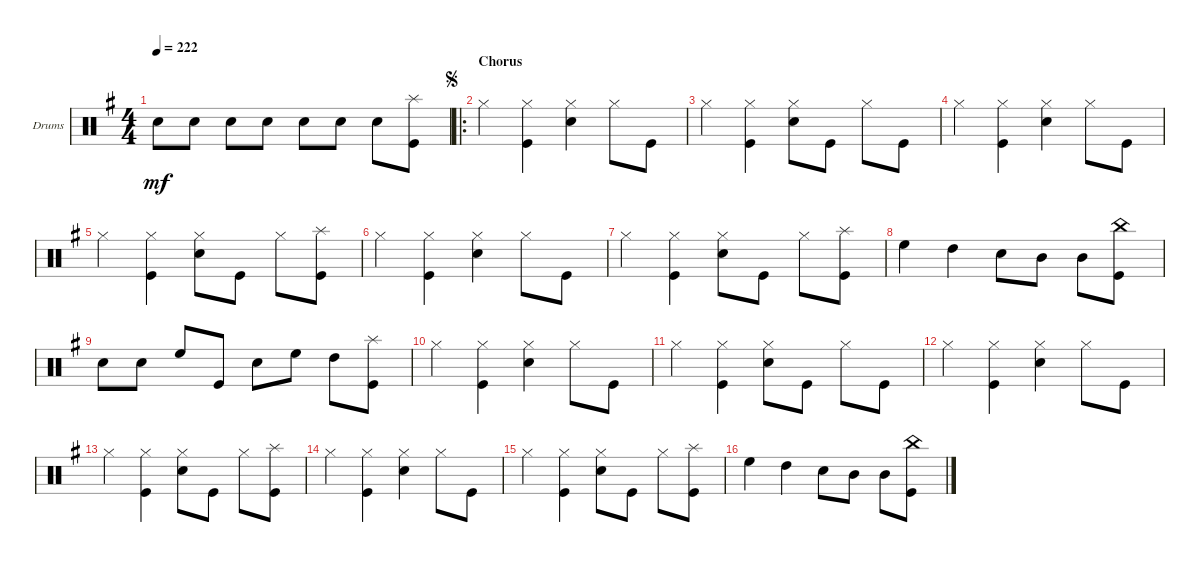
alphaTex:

\bracketExtendMode groupsimilarinstruments
\firstSystemTrackNameOrientation horizontal
\otherSystemsTrackNameOrientation horizontal
\track ("Drumkit" "Drums") {instrument percussion}
\staff {score}
\articulation defaults
\ts (4 4)
\beaming (8 2 2 2 2)
\tempo 222
\clef neutral
\ks eminor "Snare (hit) 2".8{dy mf} "Snare (hit) 2".8 "Snare (hit) 2".8 "Snare (hit) 2".8 "Snare (hit) 2".8 "Snare (hit) 2".8 "Snare (hit) 2".8
("Kick (hit)" "Splash (hit)").8 |
\ro
\section ("" "Chorus")
\jump segno "Hi-Hat (closed)".4
("Kick (hit)" "Hi-Hat (closed)").4 ("Snare (hit) 2" "Hi-Hat (closed)").4 "Hi-Hat (closed)".8 "Kick (hit)".8 |
"Hi-Hat (closed)".4 ("Hi-Hat (closed)" "Kick (hit)").4 ("Snare (hit) 2" "Hi-Hat (closed)").8 "Kick (hit)".8 "Hi-Hat (closed)".8 "Kick (hit)".8 |
"Hi-Hat (closed)".4 ("Kick (hit)" "Hi-Hat (closed)").4 ("Snare (hit) 2" "Hi-Hat (closed)").4 "Hi-Hat (closed)".8 "Kick (hit)".8 |
"Hi-Hat (closed)".4 ("Hi-Hat (closed)" "Kick (hit)").4 ("Snare (hit) 2" "Hi-Hat (closed)").8 "Kick (hit)".8 "Hi-Hat (closed)".8 ("Kick (hit)" "Splash (hit)").8 |
"Hi-Hat (closed)".4 ("Kick (hit)" "Hi-Hat (closed)").4 ("Snare (hit) 2" "Hi-Hat (closed)").4 "Hi-Hat (closed)".8 "Kick (hit)".8 |
"Hi-Hat (closed)".4 ("Hi-Hat (closed)" "Kick (hit)").4 ("Snare (hit) 2" "Hi-Hat (closed)").8 "Kick (hit)".8 "Hi-Hat (closed)".8 ("Kick (hit)" "Splash (hit)").8 |
"High Floor Tom (hit)".4 "High Tom (hit)".4 "Snare (hit) 2".8 "Mid Tom (hit)".8 "Mid Tom (hit)".8 ("Kick (hit)" "China (hit)").8 |
"Snare (hit) 2".8 "Snare (hit) 2".8 "High Floor Tom (hit)".8 "Kick (hit)".8 "Snare (hit) 2".8 "High Floor Tom (hit)".8 "High Tom (hit)".8 ("Kick (hit)" "Splash (hit)").8 |
"Hi-Hat (closed)".4 ("Kick (hit)" "Hi-Hat (closed)").4 ("Snare (hit) 2" "Hi-Hat (closed)").4 "Hi-Hat (closed)".8 "Kick (hit)".8 |
"Hi-Hat (closed)".4 ("Hi-Hat (closed)" "Kick (hit)").4 ("Snare (hit) 2" "Hi-Hat (closed)").8 "Kick (hit)".8 "Hi-Hat (closed)".8 "Kick (hit)".8 |
"Hi-Hat (closed)".4 ("Kick (hit)" "Hi-Hat (closed)").4 ("Snare (hit) 2" "Hi-Hat (closed)").4 "Hi-Hat (closed)".8 "Kick (hit)".8 |
"Hi-Hat (closed)".4 ("Hi-Hat (closed)" "Kick (hit)").4 ("Snare (hit) 2" "Hi-Hat (closed)").8 "Kick (hit)".8 "Hi-Hat (closed)".8 ("Kick (hit)" "Splash (hit)").8 |
"Hi-Hat (closed)".4 ("Kick (hit)" "Hi-Hat (closed)").4 ("Snare (hit) 2" "Hi-Hat (closed)").4 "Hi-Hat (closed)".8 "Kick (hit)".8 |
"Hi-Hat (closed)".4 ("Hi-Hat (closed)" "Kick (hit)").4 ("Snare (hit) 2" "Hi-Hat (closed)").8 "Kick (hit)".8 "Hi-Hat (closed)".8 ("Kick (hit)" "Splash (hit)").8 |
"High Floor Tom (hit)".4 "High Tom (hit)".4 "Snare (hit) 2".8 "Mid Tom (hit)".8 "Mid Tom (hit)".8 ("Kick (hit)" "China (hit)").8
